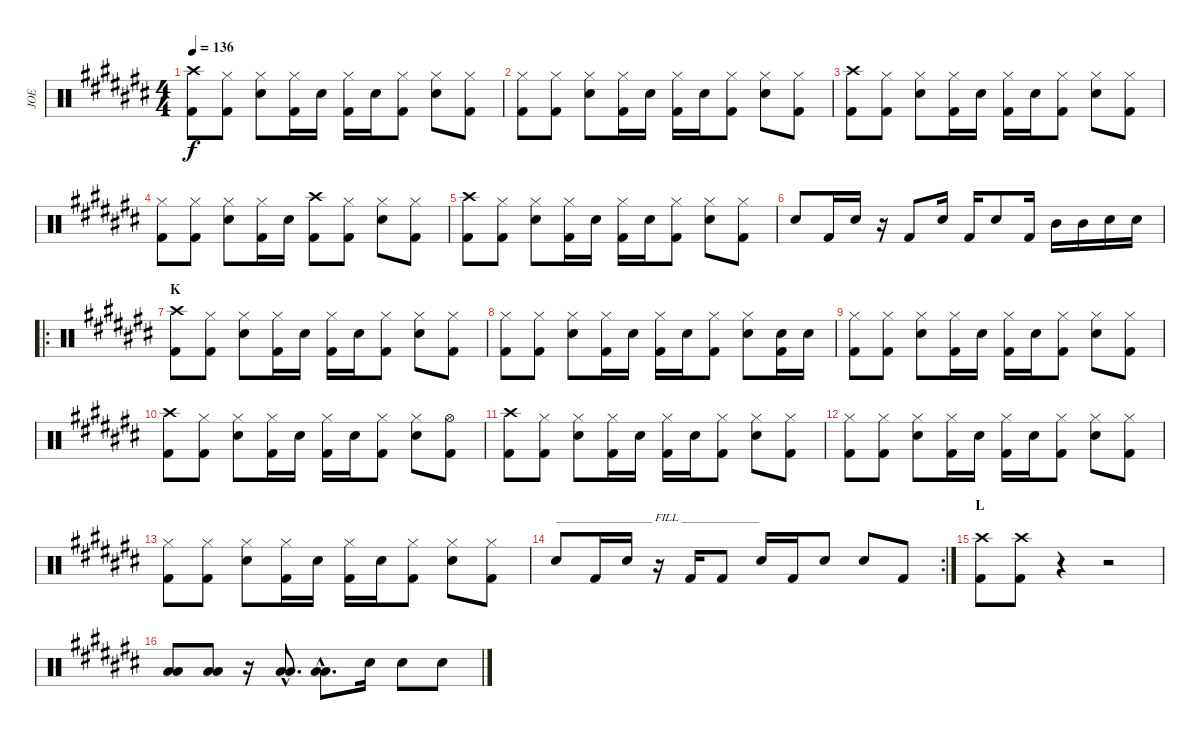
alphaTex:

\track ("JOE" "JOE") {instrument percussion}
\staff {score}
\articulation defaults
\ts (4 4)
\tempo 136
\clef neutral
\ks c#
("Crash high (hit)" "Kick (hit) 2").8{dy f} ("Hi-Hat (closed)" "Kick (hit) 2").8 ("Hi-Hat (closed)" "Snare (hit) 2").8 ("Hi-Hat (closed)" "Kick (hit) 2").16 "Snare (hit) 2".16 ("Hi-Hat (closed)" "Kick (hit) 2").16 "Snare (hit) 2".16 ("Hi-Hat (closed)" "Kick (hit) 2").8 ("Hi-Hat (closed)" "Snare (hit) 2").8 ("Hi-Hat (closed)" "Kick (hit) 2").8 |
("Hi-Hat (closed)" "Kick (hit) 2").8 ("Hi-Hat (closed)" "Kick (hit) 2").8 ("Hi-Hat (closed)" "Snare (hit) 2").8 ("Hi-Hat (closed)" "Kick (hit) 2").16 "Snare (hit) 2".16 ("Hi-Hat (closed)" "Kick (hit) 2").16 "Snare (hit) 2".16 ("Hi-Hat (closed)" "Kick (hit) 2").8 ("Hi-Hat (closed)" "Snare (hit) 2").8 ("Hi-Hat (closed)" "Kick (hit) 2").8 |
("Crash high (hit)" "Kick (hit) 2").8 ("Hi-Hat (closed)" "Kick (hit) 2").8 ("Hi-Hat (closed)" "Snare (hit) 2").8 ("Hi-Hat (closed)" "Kick (hit) 2").16 "Snare (hit) 2".16 ("Hi-Hat (closed)" "Kick (hit) 2").16 "Snare (hit) 2".16 ("Hi-Hat (closed)" "Kick (hit) 2").8 ("Hi-Hat (closed)" "Snare (hit) 2").8 ("Hi-Hat (closed)" "Kick (hit) 2").8 |
("Hi-Hat (closed)" "Kick (hit) 2").8 ("Hi-Hat (closed)" "Kick (hit) 2").8 ("Hi-Hat (closed)" "Snare (hit) 2").8 ("Hi-Hat (closed)" "Kick (hit) 2").16 "Snare (hit) 2".16 ("Crash high (hit)" "Kick (hit) 2").8 ("Hi-Hat (closed)" "Kick (hit) 2").8 ("Hi-Hat (closed)" "Snare (hit) 2").8 ("Hi-Hat (closed)" "Kick (hit) 2").8 |
("Crash high (hit)" "Kick (hit) 2").8 ("Hi-Hat (closed)" "Kick (hit) 2").8 ("Hi-Hat (closed)" "Snare (hit) 2").8 ("Hi-Hat (closed)" "Kick (hit) 2").16 "Snare (hit) 2".16 ("Hi-Hat (closed)" "Kick (hit) 2").16 "Snare (hit) 2".16 ("Hi-Hat (closed)" "Kick (hit) 2").8 ("Hi-Hat (closed)" "Snare (hit) 2").8 ("Hi-Hat (closed)" "Kick (hit) 2").8 |
"Snare (hit) 2".8 "Kick (hit) 2".16 "Snare (hit) 2".16 r.16 "Kick (hit) 2".8 "Snare (hit) 2".16 "Kick (hit) 2".16 "Snare (hit) 2".8 "Kick (hit) 2".16 "Mid Tom (hit)".16 "Mid Tom (hit)".16 "Snare (hit) 2".16 "Snare (hit) 2".16 |
\ro
\section ("" "K")
("Crash high (hit)" "Kick (hit) 2").8 ("Hi-Hat (closed)" "Kick (hit) 2").8 ("Hi-Hat (closed)" "Snare (hit) 2").8 ("Hi-Hat (closed)" "Kick (hit) 2").16 "Snare (hit) 2".16 ("Hi-Hat (closed)" "Kick (hit) 2").16 "Snare (hit) 2".16 ("Hi-Hat (closed)" "Kick (hit) 2").8 ("Hi-Hat (closed)" "Snare (hit) 2").8 ("Hi-Hat (closed)" "Kick (hit) 2").8 |
("Hi-Hat (closed)" "Kick (hit) 2").8 ("Hi-Hat (closed)" "Kick (hit) 2").8 ("Hi-Hat (closed)" "Snare (hit) 2").8 ("Hi-Hat (closed)" "Kick (hit) 2").16 "Snare (hit) 2".16 ("Hi-Hat (closed)" "Kick (hit) 2").16 "Snare (hit) 2".16 ("Hi-Hat (closed)" "Kick (hit) 2").8 ("Hi-Hat (closed)" "Snare (hit) 2").8 ("Snare (hit) 2" "Kick (hit) 2").16 "Snare (hit) 2".16 |
("Hi-Hat (closed)" "Kick (hit) 2").8 ("Hi-Hat (closed)" "Kick (hit) 2").8 ("Hi-Hat (closed)" "Snare (hit) 2").8 ("Hi-Hat (closed)" "Kick (hit) 2").16 "Snare (hit) 2".16 ("Hi-Hat (closed)" "Kick (hit) 2").16 "Snare (hit) 2".16 ("Hi-Hat (closed)" "Kick (hit) 2").8 ("Hi-Hat (closed)" "Snare (hit) 2").8 ("Hi-Hat (closed)" "Kick (hit) 2").8 |
("Crash high (hit)" "Kick (hit) 2").8 ("Hi-Hat (closed)" "Kick (hit) 2").8 ("Hi-Hat (closed)" "Snare (hit) 2").8 ("Hi-Hat (closed)" "Kick (hit) 2").16 "Snare (hit) 2".16 ("Hi-Hat (closed)" "Kick (hit) 2").16 "Snare (hit) 2".16 ("Hi-Hat (closed)" "Kick (hit) 2").8 ("Hi-Hat (closed)" "Snare (hit) 2").8 ("Hi-Hat (open)" "Kick (hit) 2").8 |
("Crash high (hit)" "Kick (hit) 2").8 ("Hi-Hat (closed)" "Kick (hit) 2").8 ("Hi-Hat (closed)" "Snare (hit) 2").8 ("Hi-Hat (closed)" "Kick (hit) 2").16 "Snare (hit) 2".16 ("Hi-Hat (closed)" "Kick (hit) 2").16 "Snare (hit) 2".16 ("Hi-Hat (closed)" "Kick (hit) 2").8 ("Hi-Hat (closed)" "Snare (hit) 2").8 ("Hi-Hat (closed)" "Kick (hit) 2").8 |
("Hi-Hat (closed)" "Kick (hit) 2").8 ("Hi-Hat (closed)" "Kick (hit) 2").8 ("Hi-Hat (closed)" "Snare (hit) 2").8 ("Hi-Hat (closed)" "Kick (hit) 2").16 "Snare (hit) 2".16 ("Hi-Hat (closed)" "Kick (hit) 2").16 "Snare (hit) 2".16 ("Hi-Hat (closed)" "Kick (hit) 2").8 ("Hi-Hat (closed)" "Snare (hit) 2").8 ("Hi-Hat (closed)" "Kick (hit) 2").8 |
("Hi-Hat (closed)" "Kick (hit) 2").8 ("Hi-Hat (closed)" "Kick (hit) 2").8 ("Hi-Hat (closed)" "Snare (hit) 2").8 ("Hi-Hat (closed)" "Kick (hit) 2").16 "Snare (hit) 2".16 ("Hi-Hat (closed)" "Kick (hit) 2").16 "Snare (hit) 2".16 ("Hi-Hat (closed)" "Kick (hit) 2").8 ("Hi-Hat (closed)" "Snare (hit) 2").8 ("Hi-Hat (closed)" "Kick (hit) 2").8 |
\rc 2 "Snare (hit) 2".8{txt "________________ FILL _____________"} "Kick (hit) 2".16 "Snare (hit) 2".16
r.16 "Kick (hit) 2".16 "Kick (hit) 2".8 "Snare (hit) 2".16 "Kick (hit) 2".16 "Snare (hit) 2".8 "Snare (hit) 2".8 "Kick (hit) 2".8 |
\section ("" "L")
("Crash high (hit)" "Kick (hit) 2").8 ("Crash high (hit)" "Kick (hit) 2").8 r.4 r.2 |
("Low Tom (hit)" "Low Floor Tom (hit)").8 ("Low Tom (hit)" "Low Floor Tom (hit)").8 r.16 ("Low Tom (hit)"{hac} "Low Floor Tom (hit)"{hac}).8{d} ("Low Tom (hit)"{hac} "Low Floor Tom (hit)"{hac}).8{d} "Snare (hit) 2".16 "Snare (hit) 2".8 "Snare (hit) 2".8
